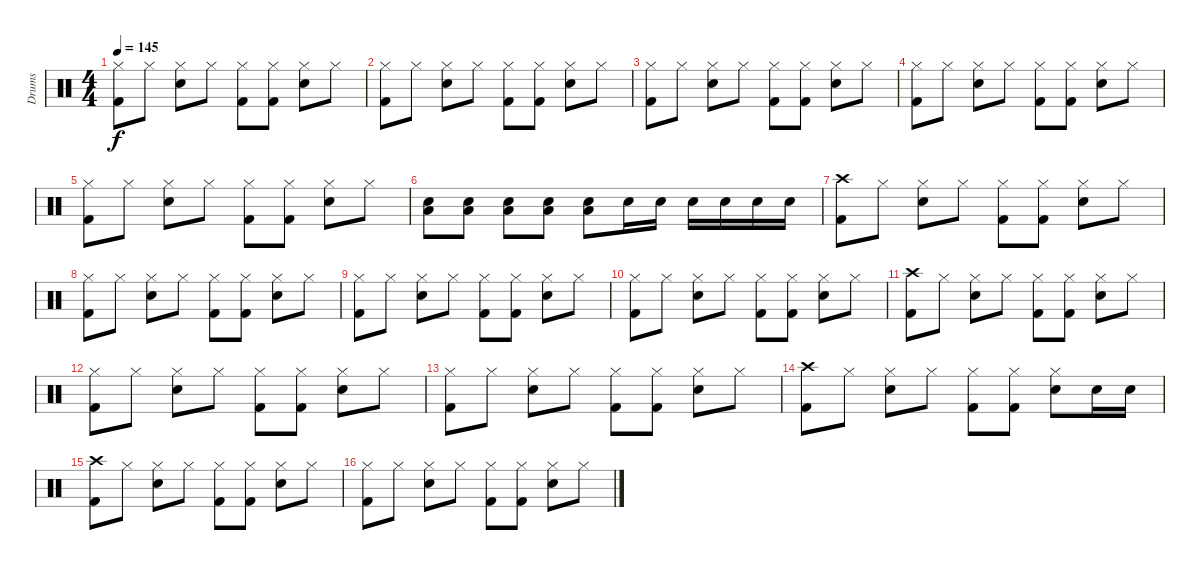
\track ("Drums" "Drums") {instrument percussion}
\staff {score}
\articulation defaults
\ts (4 4)
\tempo 145
\clef neutral
\ks c
("Hi-Hat (closed)" "Kick (hit) 2").8{dy f} "Hi-Hat (closed)".8 ("Hi-Hat (closed)" "Electric Snare (hit)").8 "Hi-Hat (closed)".8 ("Hi-Hat (closed)" "Kick (hit) 2").8 ("Hi-Hat (closed)" "Kick (hit) 2").8 ("Hi-Hat (closed)" "Electric Snare (hit)").8 "Hi-Hat (closed)".8 |
("Hi-Hat (closed)" "Kick (hit) 2").8 "Hi-Hat (closed)".8 ("Hi-Hat (closed)" "Electric Snare (hit)").8 "Hi-Hat (closed)".8 ("Hi-Hat (closed)" "Kick (hit) 2").8 ("Hi-Hat (closed)" "Kick (hit) 2").8 ("Hi-Hat (closed)" "Electric Snare (hit)").8 "Hi-Hat (closed)".8 |
("Hi-Hat (closed)" "Kick (hit) 2").8 "Hi-Hat (closed)".8 ("Hi-Hat (closed)" "Electric Snare (hit)").8 "Hi-Hat (closed)".8 ("Hi-Hat (closed)" "Kick (hit) 2").8 ("Hi-Hat (closed)" "Kick (hit) 2").8 ("Hi-Hat (closed)" "Electric Snare (hit)").8 "Hi-Hat (closed)".8 |
("Hi-Hat (closed)" "Kick (hit) 2").8 "Hi-Hat (closed)".8 ("Hi-Hat (closed)" "Electric Snare (hit)").8 "Hi-Hat (closed)".8 ("Hi-Hat (closed)" "Kick (hit) 2").8 ("Hi-Hat (closed)" "Kick (hit) 2").8 ("Hi-Hat (closed)" "Electric Snare (hit)").8 "Hi-Hat (closed)".8 |
("Hi-Hat (closed)" "Kick (hit) 2").8 "Hi-Hat (closed)".8 ("Hi-Hat (closed)" "Electric Snare (hit)").8 "Hi-Hat (closed)".8 ("Hi-Hat (closed)" "Kick (hit) 2").8 ("Hi-Hat (closed)" "Kick (hit) 2").8 ("Hi-Hat (closed)" "Electric Snare (hit)").8 "Hi-Hat (closed)".8 |
("Electric Snare (hit)" "Low Floor Tom (hit)").8 ("Electric Snare (hit)" "Low Floor Tom (hit)").8 ("Electric Snare (hit)" "Low Floor Tom (hit)").8 ("Electric Snare (hit)" "Low Floor Tom (hit)").8 ("Electric Snare (hit)" "Low Floor Tom (hit)").8 "Electric Snare (hit)".16 "Electric Snare (hit)".16 "Electric Snare (hit)".16 "Electric Snare (hit)".16 "Electric Snare (hit)".16 "Electric Snare (hit)".16 |
("Crash high (hit)" "Kick (hit) 2").8 "Hi-Hat (closed)".8 ("Hi-Hat (closed)" "Electric Snare (hit)").8 "Hi-Hat (closed)".8 ("Hi-Hat (closed)" "Kick (hit) 2").8 ("Hi-Hat (closed)" "Kick (hit) 2").8 ("Hi-Hat (closed)" "Electric Snare (hit)").8 "Hi-Hat (closed)".8 |
("Hi-Hat (closed)" "Kick (hit) 2").8 "Hi-Hat (closed)".8 ("Hi-Hat (closed)" "Electric Snare (hit)").8 "Hi-Hat (closed)".8 ("Hi-Hat (closed)" "Kick (hit) 2").8 ("Hi-Hat (closed)" "Kick (hit) 2").8 ("Hi-Hat (closed)" "Electric Snare (hit)").8 "Hi-Hat (closed)".8 |
("Hi-Hat (closed)" "Kick (hit) 2").8 "Hi-Hat (closed)".8 ("Hi-Hat (closed)" "Electric Snare (hit)").8 "Hi-Hat (closed)".8 ("Hi-Hat (closed)" "Kick (hit) 2").8 ("Hi-Hat (closed)" "Kick (hit) 2").8 ("Hi-Hat (closed)" "Electric Snare (hit)").8 "Hi-Hat (closed)".8 |
("Hi-Hat (closed)" "Kick (hit) 2").8 "Hi-Hat (closed)".8 ("Hi-Hat (closed)" "Electric Snare (hit)").8 "Hi-Hat (closed)".8 ("Hi-Hat (closed)" "Kick (hit) 2").8 ("Hi-Hat (closed)" "Kick (hit) 2").8 ("Hi-Hat (closed)" "Electric Snare (hit)").8 "Hi-Hat (closed)".8 |
("Crash high (hit)" "Kick (hit) 2").8 "Hi-Hat (closed)".8 ("Hi-Hat (closed)" "Electric Snare (hit)").8 "Hi-Hat (closed)".8 ("Hi-Hat (closed)" "Kick (hit) 2").8 ("Hi-Hat (closed)" "Kick (hit) 2").8 ("Hi-Hat (closed)" "Electric Snare (hit)").8 "Hi-Hat (closed)".8 |
("Hi-Hat (closed)" "Kick (hit) 2").8 "Hi-Hat (closed)".8 ("Hi-Hat (closed)" "Electric Snare (hit)").8 "Hi-Hat (closed)".8 ("Hi-Hat (closed)" "Kick (hit) 2").8 ("Hi-Hat (closed)" "Kick (hit) 2").8 ("Hi-Hat (closed)" "Electric Snare (hit)").8 "Hi-Hat (closed)".8 |
("Hi-Hat (closed)" "Kick (hit) 2").8 "Hi-Hat (closed)".8 ("Hi-Hat (closed)" "Electric Snare (hit)").8 "Hi-Hat (closed)".8 ("Hi-Hat (closed)" "Kick (hit) 2").8 ("Hi-Hat (closed)" "Kick (hit) 2").8 ("Hi-Hat (closed)" "Electric Snare (hit)").8 "Hi-Hat (closed)".8 |
("Crash high (hit)" "Kick (hit) 2").8 "Hi-Hat (closed)".8 ("Hi-Hat (closed)" "Electric Snare (hit)").8 "Hi-Hat (closed)".8 ("Hi-Hat (closed)" "Kick (hit) 2").8 ("Hi-Hat (closed)" "Kick (hit) 2").8 ("Hi-Hat (closed)" "Electric Snare (hit)").8 "Electric Snare (hit)".16 "Electric Snare (hit)".16 |
("Crash high (hit)" "Kick (hit) 2").8 "Hi-Hat (closed)".8 ("Hi-Hat (closed)" "Electric Snare (hit)").8 "Hi-Hat (closed)".8 ("Hi-Hat (closed)" "Kick (hit) 2").8 ("Hi-Hat (closed)" "Kick (hit) 2").8 ("Hi-Hat (closed)" "Electric Snare (hit)").8 "Hi-Hat (closed)".8 |
("Hi-Hat (closed)" "Kick (hit) 2").8 "Hi-Hat (closed)".8 ("Hi-Hat (closed)" "Electric Snare (hit)").8 "Hi-Hat (closed)".8 ("Hi-Hat (closed)" "Kick (hit) 2").8 ("Hi-Hat (closed)" "Kick (hit) 2").8 ("Hi-Hat (closed)" "Electric Snare (hit)").8 "Hi-Hat (closed)".8
